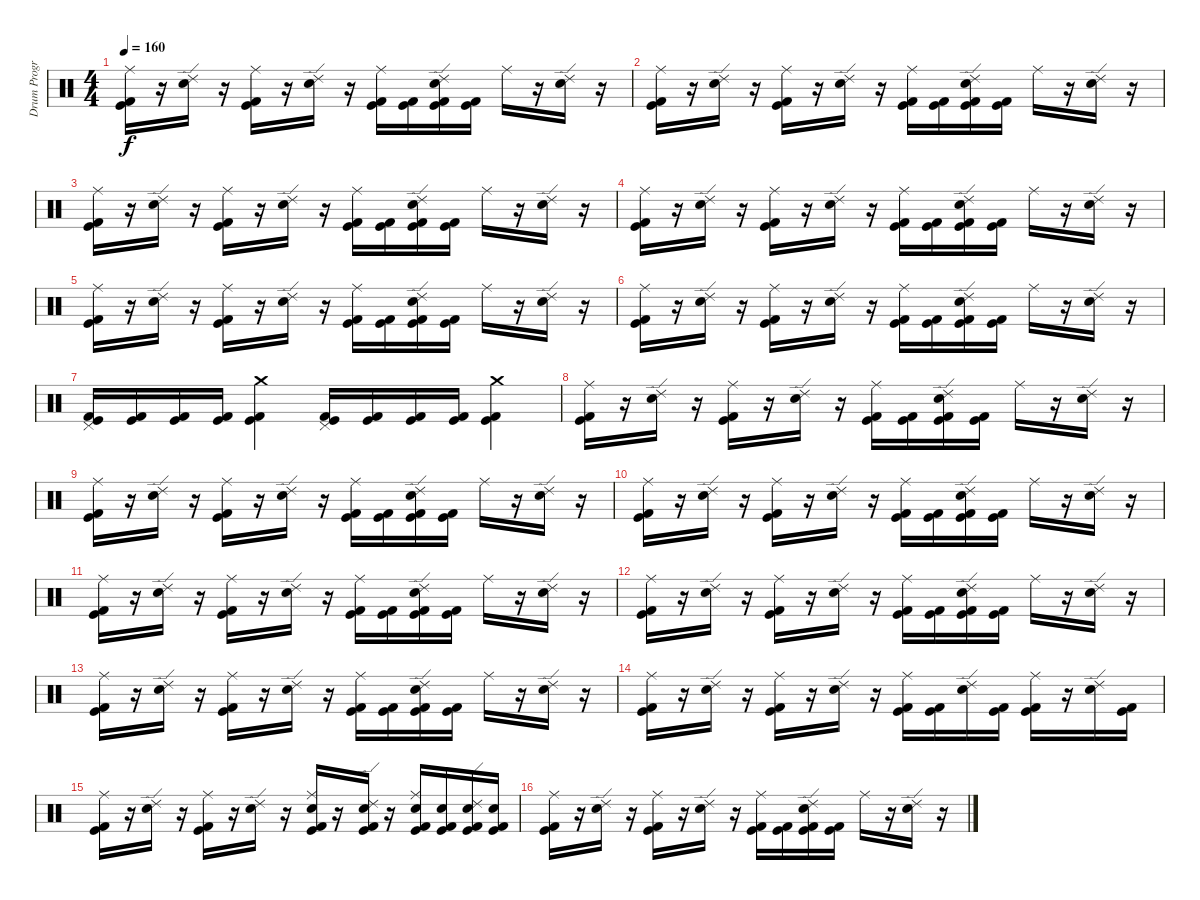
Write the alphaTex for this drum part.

\track ("Drum Program - BG" "Drum Progr") {instrument percussion}
\staff {score}
\articulation defaults
\ts (4 4)
\tempo 160
\clef neutral
\ks c
("Kick (hit) 2" "Kick (hit)" "Ride (middle)").16{dy f} r.16 ("Electric Snare (hit)" "Ride (edge) 2").16 r.16 ("Kick (hit)" "Kick (hit) 2" "Ride (middle)").16 r.16 ("Electric Snare (hit)" "Ride (edge) 2").16 r.16 ("Kick (hit)" "Kick (hit) 2" "Ride (middle)").16 ("Kick (hit)" "Kick (hit) 2").16 ("Kick (hit)" "Kick (hit) 2" "Electric Snare (hit)" "Ride (edge) 2").16 ("Kick (hit)" "Kick (hit) 2").16 "Ride (middle)".16 r.16 ("Electric Snare (hit)" "Ride (edge) 2").16 r.16 |
("Kick (hit) 2" "Kick (hit)" "Ride (middle)").16 r.16 ("Electric Snare (hit)" "Ride (edge) 2").16 r.16 ("Kick (hit)" "Kick (hit) 2" "Ride (middle)").16 r.16 ("Electric Snare (hit)" "Ride (edge) 2").16 r.16 ("Kick (hit)" "Kick (hit) 2" "Ride (middle)").16 ("Kick (hit)" "Kick (hit) 2").16 ("Kick (hit)" "Kick (hit) 2" "Electric Snare (hit)" "Ride (edge) 2").16 ("Kick (hit)" "Kick (hit) 2").16 "Ride (middle)".16 r.16 ("Electric Snare (hit)" "Ride (edge) 2").16 r.16 |
("Kick (hit) 2" "Kick (hit)" "Ride (middle)").16 r.16 ("Electric Snare (hit)" "Ride (edge) 2").16 r.16 ("Kick (hit)" "Kick (hit) 2" "Ride (middle)").16 r.16 ("Electric Snare (hit)" "Ride (edge) 2").16 r.16 ("Kick (hit)" "Kick (hit) 2" "Ride (middle)").16 ("Kick (hit)" "Kick (hit) 2").16 ("Kick (hit)" "Kick (hit) 2" "Electric Snare (hit)" "Ride (edge) 2").16 ("Kick (hit)" "Kick (hit) 2").16 "Ride (middle)".16 r.16 ("Electric Snare (hit)" "Ride (edge) 2").16 r.16 |
("Kick (hit) 2" "Kick (hit)" "Ride (middle)").16 r.16 ("Electric Snare (hit)" "Ride (edge) 2").16 r.16 ("Kick (hit)" "Kick (hit) 2" "Ride (middle)").16 r.16 ("Electric Snare (hit)" "Ride (edge) 2").16 r.16 ("Kick (hit)" "Kick (hit) 2" "Ride (middle)").16 ("Kick (hit)" "Kick (hit) 2").16 ("Kick (hit)" "Kick (hit) 2" "Electric Snare (hit)" "Ride (edge) 2").16 ("Kick (hit)" "Kick (hit) 2").16 "Ride (middle)".16 r.16 ("Electric Snare (hit)" "Ride (edge) 2").16 r.16 |
("Kick (hit) 2" "Kick (hit)" "Ride (middle)").16 r.16 ("Electric Snare (hit)" "Ride (edge) 2").16 r.16 ("Kick (hit)" "Kick (hit) 2" "Ride (middle)").16 r.16 ("Electric Snare (hit)" "Ride (edge) 2").16 r.16 ("Kick (hit)" "Kick (hit) 2" "Ride (middle)").16 ("Kick (hit)" "Kick (hit) 2").16 ("Kick (hit)" "Kick (hit) 2" "Electric Snare (hit)" "Ride (edge) 2").16 ("Kick (hit)" "Kick (hit) 2").16 "Ride (middle)".16 r.16 ("Electric Snare (hit)" "Ride (edge) 2").16 r.16 |
("Kick (hit) 2" "Kick (hit)" "Ride (middle)").16 r.16 ("Electric Snare (hit)" "Ride (edge) 2").16 r.16 ("Kick (hit)" "Kick (hit) 2" "Ride (middle)").16 r.16 ("Electric Snare (hit)" "Ride (edge) 2").16 r.16 ("Kick (hit)" "Kick (hit) 2" "Ride (middle)").16 ("Kick (hit)" "Kick (hit) 2").16 ("Kick (hit)" "Kick (hit) 2" "Electric Snare (hit)" "Ride (edge) 2").16 ("Kick (hit)" "Kick (hit) 2").16 "Ride (middle)".16 r.16 ("Electric Snare (hit)" "Ride (edge) 2").16 r.16 |
("Kick (hit)" "Kick (hit) 2" "Pedal Hi-Hat (hit)").16 ("Kick (hit)" "Kick (hit) 2").16 ("Kick (hit)" "Kick (hit) 2").16 ("Kick (hit)" "Kick (hit) 2").16 ("Kick (hit)" "Kick (hit) 2" "Crash medium (hit)").4 ("Kick (hit)" "Kick (hit) 2" "Pedal Hi-Hat (hit)").16 ("Kick (hit)" "Kick (hit) 2").16 ("Kick (hit)" "Kick (hit) 2").16 ("Kick (hit)" "Kick (hit) 2").16 ("Kick (hit)" "Kick (hit) 2" "Crash medium (hit)").4 |
("Kick (hit) 2" "Kick (hit)" "Ride (middle)").16 r.16 ("Electric Snare (hit)" "Ride (edge) 2").16 r.16 ("Kick (hit)" "Kick (hit) 2" "Ride (middle)").16 r.16 ("Electric Snare (hit)" "Ride (edge) 2").16 r.16 ("Kick (hit)" "Kick (hit) 2" "Ride (middle)").16 ("Kick (hit)" "Kick (hit) 2").16 ("Kick (hit)" "Kick (hit) 2" "Electric Snare (hit)" "Ride (edge) 2").16 ("Kick (hit)" "Kick (hit) 2").16 "Ride (middle)".16 r.16 ("Electric Snare (hit)" "Ride (edge) 2").16 r.16 |
("Kick (hit) 2" "Kick (hit)" "Ride (middle)").16 r.16 ("Electric Snare (hit)" "Ride (edge) 2").16 r.16 ("Kick (hit)" "Kick (hit) 2" "Ride (middle)").16 r.16 ("Electric Snare (hit)" "Ride (edge) 2").16 r.16 ("Kick (hit)" "Kick (hit) 2" "Ride (middle)").16 ("Kick (hit)" "Kick (hit) 2").16 ("Kick (hit)" "Kick (hit) 2" "Electric Snare (hit)" "Ride (edge) 2").16 ("Kick (hit)" "Kick (hit) 2").16 "Ride (middle)".16 r.16 ("Electric Snare (hit)" "Ride (edge) 2").16 r.16 |
("Kick (hit) 2" "Kick (hit)" "Ride (middle)").16 r.16 ("Electric Snare (hit)" "Ride (edge) 2").16 r.16 ("Kick (hit)" "Kick (hit) 2" "Ride (middle)").16 r.16 ("Electric Snare (hit)" "Ride (edge) 2").16 r.16 ("Kick (hit)" "Kick (hit) 2" "Ride (middle)").16 ("Kick (hit)" "Kick (hit) 2").16 ("Kick (hit)" "Kick (hit) 2" "Electric Snare (hit)" "Ride (edge) 2").16 ("Kick (hit)" "Kick (hit) 2").16 "Ride (middle)".16 r.16 ("Electric Snare (hit)" "Ride (edge) 2").16 r.16 |
("Kick (hit) 2" "Kick (hit)" "Ride (middle)").16 r.16 ("Electric Snare (hit)" "Ride (edge) 2").16 r.16 ("Kick (hit)" "Kick (hit) 2" "Ride (middle)").16 r.16 ("Electric Snare (hit)" "Ride (edge) 2").16 r.16 ("Kick (hit)" "Kick (hit) 2" "Ride (middle)").16 ("Kick (hit)" "Kick (hit) 2").16 ("Kick (hit)" "Kick (hit) 2" "Electric Snare (hit)" "Ride (edge) 2").16 ("Kick (hit)" "Kick (hit) 2").16 "Ride (middle)".16 r.16 ("Electric Snare (hit)" "Ride (edge) 2").16 r.16 |
("Kick (hit) 2" "Kick (hit)" "Ride (middle)").16 r.16 ("Electric Snare (hit)" "Ride (edge) 2").16 r.16 ("Kick (hit)" "Kick (hit) 2" "Ride (middle)").16 r.16 ("Electric Snare (hit)" "Ride (edge) 2").16 r.16 ("Kick (hit)" "Kick (hit) 2" "Ride (middle)").16 ("Kick (hit)" "Kick (hit) 2").16 ("Kick (hit)" "Kick (hit) 2" "Electric Snare (hit)" "Ride (edge) 2").16 ("Kick (hit)" "Kick (hit) 2").16 "Ride (middle)".16 r.16 ("Electric Snare (hit)" "Ride (edge) 2").16 r.16 |
("Kick (hit) 2" "Kick (hit)" "Ride (middle)").16 r.16 ("Electric Snare (hit)" "Ride (edge) 2").16 r.16 ("Kick (hit)" "Kick (hit) 2" "Ride (middle)").16 r.16 ("Electric Snare (hit)" "Ride (edge) 2").16 r.16 ("Kick (hit)" "Kick (hit) 2" "Ride (middle)").16 ("Kick (hit)" "Kick (hit) 2").16 ("Kick (hit)" "Kick (hit) 2" "Electric Snare (hit)" "Ride (edge) 2").16 ("Kick (hit)" "Kick (hit) 2").16 "Ride (middle)".16 r.16 ("Electric Snare (hit)" "Ride (edge) 2").16 r.16 |
("Kick (hit) 2" "Kick (hit)" "Ride (middle)").16 r.16 ("Electric Snare (hit)" "Ride (edge) 2").16 r.16 ("Kick (hit)" "Kick (hit) 2" "Ride (middle)").16 r.16 ("Electric Snare (hit)" "Ride (edge) 2").16 r.16 ("Kick (hit)" "Kick (hit) 2" "Ride (middle)").16 ("Kick (hit)" "Kick (hit) 2").16 ("Electric Snare (hit)" "Ride (edge) 2").16 ("Kick (hit)" "Kick (hit) 2").16 ("Kick (hit)" "Kick (hit) 2" "Ride (middle)").16 r.16 ("Electric Snare (hit)" "Ride (edge) 2").16 ("Kick (hit)" "Kick (hit) 2").16 |
("Kick (hit)" "Kick (hit) 2" "Ride (middle)").16 r.16 ("Electric Snare (hit)" "Ride (edge) 2").16 r.16 ("Kick (hit)" "Kick (hit) 2" "Ride (middle)").16 r.16 ("Electric Snare (hit)" "Ride (edge) 2").16 r.16 ("Kick (hit)" "Kick (hit) 2" "Electric Snare (hit)" "Ride (middle)").16 r.16 ("Kick (hit)" "Kick (hit) 2" "Electric Snare (hit)" "Ride (edge) 2").16 r.16 ("Kick (hit)" "Kick (hit) 2" "Electric Snare (hit)" "Ride (middle)").16 ("Kick (hit)" "Kick (hit) 2" "Electric Snare (hit)").16 ("Kick (hit)" "Kick (hit) 2" "Electric Snare (hit)" "Ride (edge) 2").16 ("Kick (hit)" "Kick (hit) 2" "Electric Snare (hit)").16 |
("Kick (hit) 2" "Kick (hit)" "Ride (middle)").16 r.16 ("Electric Snare (hit)" "Ride (edge) 2").16 r.16 ("Kick (hit)" "Kick (hit) 2" "Ride (middle)").16 r.16 ("Electric Snare (hit)" "Ride (edge) 2").16 r.16 ("Kick (hit)" "Kick (hit) 2" "Ride (middle)").16 ("Kick (hit)" "Kick (hit) 2").16 ("Kick (hit)" "Kick (hit) 2" "Electric Snare (hit)" "Ride (edge) 2").16 ("Kick (hit)" "Kick (hit) 2").16 "Ride (middle)".16 r.16 ("Electric Snare (hit)" "Ride (edge) 2").16 r.16
